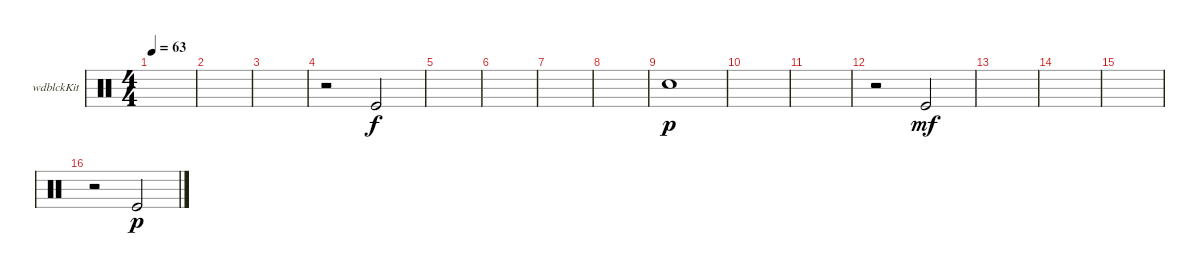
\defaultSystemsLayout 4
\bracketExtendMode groupsimilarinstruments
\firstSystemTrackNameOrientation horizontal
\otherSystemsTrackNameOrientation horizontal
\track ("Woodblock" "wdblckKit") {instrument percussion}
\staff {score}
\articulation defaults
\ts (4 4)
\tempo 63
\clef neutral
\scale
0.333333
\ks c
|
\scale
0.333333 |
\scale
0.333333 |
\scale
0.333333 r.2 "Kick (hit)".2 |
\scale
0.333333 |
\scale
0.333333 |
\scale
0.333333 |
\scale
0.333333 |
\scale
0.333333 "Snare (hit) 2".1{dy p} |
\scale
0.333333 |
\scale
0.333333 |
\scale
0.333333 r.2 "Kick (hit)".2{dy mf} |
\scale
0.333333 |
\scale
0.333333 |
\scale
0.322034 |
\scale
0.355932 r.2 "Kick (hit)".2{dy p}
